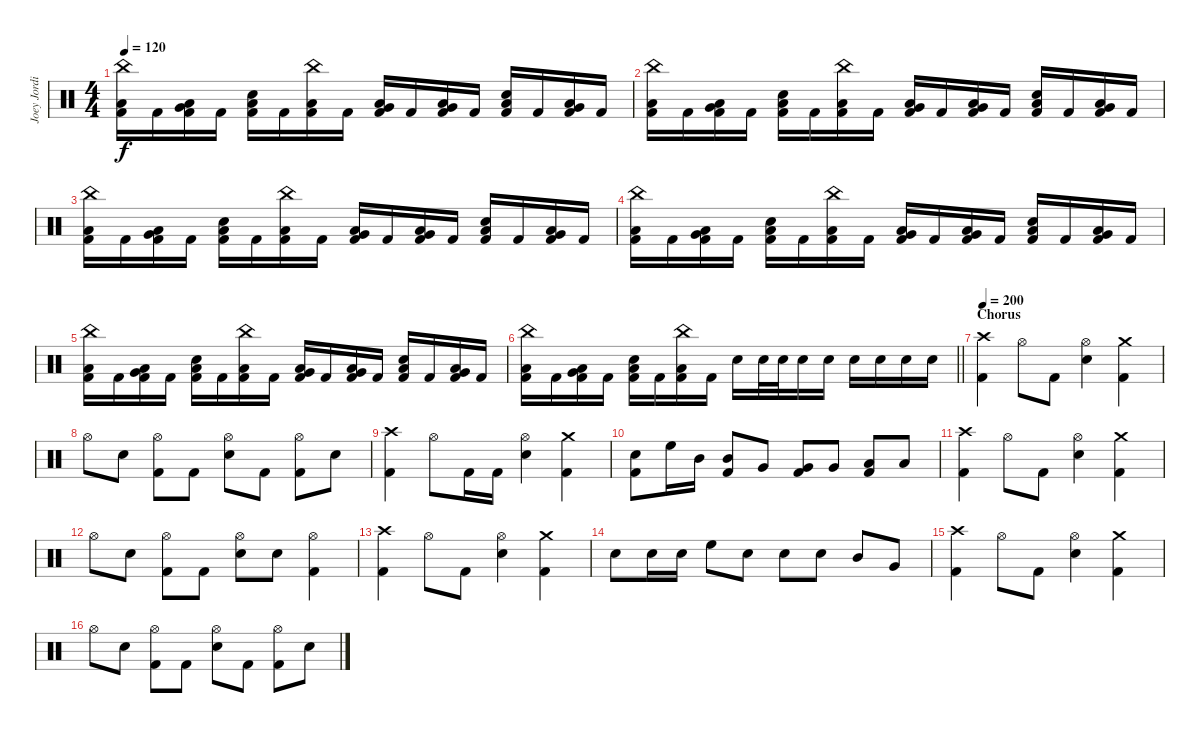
\track ("Joey Jordison" "Joey Jordi") {instrument percussion}
\staff {score}
\articulation defaults
\ts (4 4)
\tempo 120
\clef neutral
\ks c
("China (hit)" "Low Floor Tom (hit)" "Kick (hit) 2").16{dy f} "Kick (hit) 2".16 ("Low Floor Tom (hit)" "Very Low Tom (hit)" "Kick (hit) 2").16 "Kick (hit) 2".16 ("Low Floor Tom (hit)" "Electric Snare (hit)" "Kick (hit) 2").16 "Kick (hit) 2".16 ("China (hit)" "Low Floor Tom (hit)" "Kick (hit) 2").16 "Kick (hit) 2".16 ("Low Floor Tom (hit)" "Very Low Tom (hit)" "Kick (hit) 2").16 "Kick (hit) 2".16 ("Low Floor Tom (hit)" "Very Low Tom (hit)" "Kick (hit) 2").16 "Kick (hit) 2".16 ("Low Floor Tom (hit)" "Electric Snare (hit)" "Kick (hit) 2").16 "Kick (hit) 2".16 ("Low Floor Tom (hit)" "Very Low Tom (hit)" "Kick (hit) 2").16 "Kick (hit) 2".16 |
("China (hit)" "Low Floor Tom (hit)" "Kick (hit) 2").16 "Kick (hit) 2".16 ("Low Floor Tom (hit)" "Very Low Tom (hit)" "Kick (hit) 2").16 "Kick (hit) 2".16 ("Low Floor Tom (hit)" "Electric Snare (hit)" "Kick (hit) 2").16 "Kick (hit) 2".16 ("China (hit)" "Low Floor Tom (hit)" "Kick (hit) 2").16 "Kick (hit) 2".16 ("Low Floor Tom (hit)" "Very Low Tom (hit)" "Kick (hit) 2").16 "Kick (hit) 2".16 ("Low Floor Tom (hit)" "Very Low Tom (hit)" "Kick (hit) 2").16 "Kick (hit) 2".16 ("Low Floor Tom (hit)" "Electric Snare (hit)" "Kick (hit) 2").16 "Kick (hit) 2".16 ("Low Floor Tom (hit)" "Very Low Tom (hit)" "Kick (hit) 2").16 "Kick (hit) 2".16 |
("China (hit)" "Low Floor Tom (hit)" "Kick (hit) 2").16 "Kick (hit) 2".16 ("Low Floor Tom (hit)" "Very Low Tom (hit)" "Kick (hit) 2").16 "Kick (hit) 2".16 ("Low Floor Tom (hit)" "Electric Snare (hit)" "Kick (hit) 2").16 "Kick (hit) 2".16 ("China (hit)" "Low Floor Tom (hit)" "Kick (hit) 2").16 "Kick (hit) 2".16 ("Low Floor Tom (hit)" "Very Low Tom (hit)" "Kick (hit) 2").16 "Kick (hit) 2".16 ("Low Floor Tom (hit)" "Very Low Tom (hit)" "Kick (hit) 2").16 "Kick (hit) 2".16 ("Low Floor Tom (hit)" "Electric Snare (hit)" "Kick (hit) 2").16 "Kick (hit) 2".16 ("Low Floor Tom (hit)" "Very Low Tom (hit)" "Kick (hit) 2").16 "Kick (hit) 2".16 |
("China (hit)" "Low Floor Tom (hit)" "Kick (hit) 2").16 "Kick (hit) 2".16 ("Low Floor Tom (hit)" "Very Low Tom (hit)" "Kick (hit) 2").16 "Kick (hit) 2".16 ("Low Floor Tom (hit)" "Electric Snare (hit)" "Kick (hit) 2").16 "Kick (hit) 2".16 ("China (hit)" "Low Floor Tom (hit)" "Kick (hit) 2").16 "Kick (hit) 2".16 ("Low Floor Tom (hit)" "Very Low Tom (hit)" "Kick (hit) 2").16 "Kick (hit) 2".16 ("Low Floor Tom (hit)" "Very Low Tom (hit)" "Kick (hit) 2").16 "Kick (hit) 2".16 ("Low Floor Tom (hit)" "Electric Snare (hit)" "Kick (hit) 2").16 "Kick (hit) 2".16 ("Low Floor Tom (hit)" "Very Low Tom (hit)" "Kick (hit) 2").16 "Kick (hit) 2".16 |
("China (hit)" "Low Floor Tom (hit)" "Kick (hit) 2").16 "Kick (hit) 2".16 ("Low Floor Tom (hit)" "Very Low Tom (hit)" "Kick (hit) 2").16 "Kick (hit) 2".16 ("Low Floor Tom (hit)" "Electric Snare (hit)" "Kick (hit) 2").16 "Kick (hit) 2".16 ("China (hit)" "Low Floor Tom (hit)" "Kick (hit) 2").16 "Kick (hit) 2".16 ("Low Floor Tom (hit)" "Very Low Tom (hit)" "Kick (hit) 2").16 "Kick (hit) 2".16 ("Low Floor Tom (hit)" "Very Low Tom (hit)" "Kick (hit) 2").16 "Kick (hit) 2".16 ("Low Floor Tom (hit)" "Electric Snare (hit)" "Kick (hit) 2").16 "Kick (hit) 2".16 ("Low Floor Tom (hit)" "Very Low Tom (hit)" "Kick (hit) 2").16 "Kick (hit) 2".16 |
\barLineRight lightlight
("China (hit)" "Low Floor Tom (hit)" "Kick (hit) 2").16 "Kick (hit) 2".16 ("Very Low Tom (hit)" "Low Floor Tom (hit)" "Kick (hit) 2").16 "Kick (hit) 2".16 ("Low Floor Tom (hit)" "Electric Snare (hit)" "Kick (hit) 2").16 "Kick (hit) 2".16 ("China (hit)" "Low Floor Tom (hit)" "Kick (hit) 2").16 "Kick (hit) 2".16 "Electric Snare (hit)".16 "Electric Snare (hit)".32 "Electric Snare (hit)".32 "Electric Snare (hit)".16 "Electric Snare (hit)".16 "Electric Snare (hit)".16 "Electric Snare (hit)".16 "Electric Snare (hit)".16 "Electric Snare (hit)".16 |
\section ("" "Chorus")
\tempo 200
("Crash high (hit)" "Kick (hit) 2").4 "Hi-Hat (open)".8 "Kick (hit) 2".8 ("Hi-Hat (open)" "Electric Snare (hit)").4 ("Crash medium (hit)" "Kick (hit) 2").4 |
"Hi-Hat (open)".8 "Electric Snare (hit)".8 ("Hi-Hat (open)" "Kick (hit) 2").8 "Kick (hit) 2".8 ("Hi-Hat (open)" "Electric Snare (hit)").8 "Kick (hit) 2".8 ("Hi-Hat (open)" "Kick (hit) 2").8 "Electric Snare (hit)".8 |
("Crash high (hit)" "Kick (hit) 2").4 "Hi-Hat (open)".8 "Kick (hit) 2".16 "Kick (hit) 2".16 ("Hi-Hat (open)" "Electric Snare (hit)").4 ("Crash medium (hit)" "Kick (hit) 2").4 |
("Electric Snare (hit)" "Kick (hit) 2").8 "High Floor Tom (hit)".16 "Mid Tom (hit)".16 ("Mid Tom (hit)" "Kick (hit) 2").8 "Very Low Tom (hit)".8 ("Very Low Tom (hit)" "Kick (hit) 2").8 "Very Low Tom (hit)".8 ("Low Floor Tom (hit)" "Kick (hit) 2").8 "Low Floor Tom (hit)".8 |
("Crash high (hit)" "Kick (hit) 2").4 "Hi-Hat (open)".8 "Kick (hit) 2".8 ("Hi-Hat (open)" "Electric Snare (hit)").4 ("Crash medium (hit)" "Kick (hit) 2").4 |
"Hi-Hat (open)".8 "Electric Snare (hit)".8 ("Hi-Hat (open)" "Kick (hit) 2").8 "Kick (hit) 2".8 ("Hi-Hat (open)" "Electric Snare (hit)").8 "Electric Snare (hit)".8 ("Hi-Hat (open)" "Kick (hit) 2").4 |
("Crash high (hit)" "Kick (hit) 2").4 "Hi-Hat (open)".8 "Kick (hit) 2".8 ("Hi-Hat (open)" "Electric Snare (hit)").4 ("Crash medium (hit)" "Kick (hit) 2").4 |
"Electric Snare (hit)".8 "Electric Snare (hit)".16 "Electric Snare (hit)".16 "High Floor Tom (hit)".8 "Electric Snare (hit)".8 "Electric Snare (hit)".8 "Electric Snare (hit)".8 "Mid Tom (hit)".8 "Very Low Tom (hit)".8 |
("Crash high (hit)" "Kick (hit) 2").4 "Hi-Hat (open)".8 "Kick (hit) 2".8 ("Hi-Hat (open)" "Electric Snare (hit)").4 ("Crash medium (hit)" "Kick (hit) 2").4 |
"Hi-Hat (open)".8 "Electric Snare (hit)".8 ("Hi-Hat (open)" "Kick (hit) 2").8 "Kick (hit) 2".8 ("Hi-Hat (open)" "Electric Snare (hit)").8 "Kick (hit) 2".8 ("Hi-Hat (open)" "Kick (hit) 2").8 "Electric Snare (hit)".8
